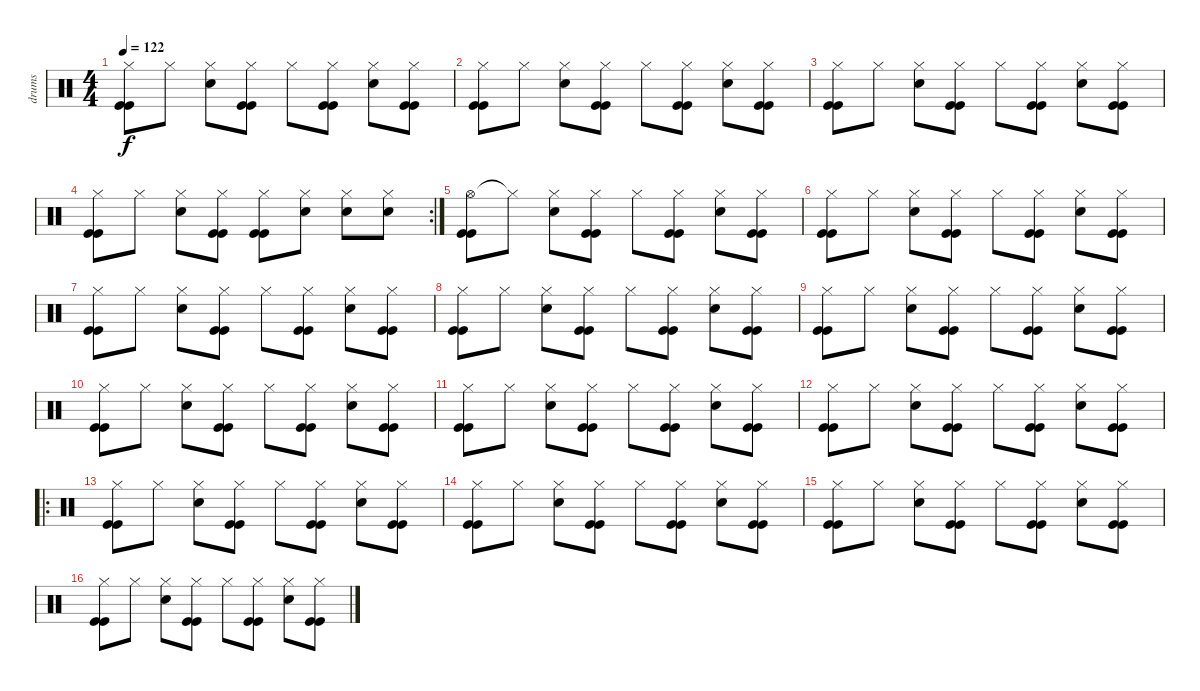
\track ("drums" "drums") {instrument percussion}
\staff {score}
\articulation defaults
\ts (4 4)
\tempo 122
\clef neutral
\ks c
("Hi-Hat (closed)" "Kick (hit)" "Kick (hit)").8{dy f} "Hi-Hat (closed)".8 ("Hi-Hat (closed)" "Electric Snare (hit)").8 ("Hi-Hat (closed)" "Kick (hit)" "Kick (hit)").8 "Hi-Hat (closed)".8 ("Hi-Hat (closed)" "Kick (hit)" "Kick (hit)").8 ("Hi-Hat (closed)" "Electric Snare (hit)").8 ("Hi-Hat (closed)" "Kick (hit)" "Kick (hit)").8 |
("Hi-Hat (closed)" "Kick (hit)" "Kick (hit)").8 "Hi-Hat (closed)".8 ("Hi-Hat (closed)" "Electric Snare (hit)").8 ("Hi-Hat (closed)" "Kick (hit)" "Kick (hit)").8 "Hi-Hat (closed)".8 ("Hi-Hat (closed)" "Kick (hit)" "Kick (hit)").8 ("Hi-Hat (closed)" "Electric Snare (hit)").8 ("Hi-Hat (closed)" "Kick (hit)" "Kick (hit)").8 |
("Hi-Hat (closed)" "Kick (hit)" "Kick (hit)").8 "Hi-Hat (closed)".8 ("Hi-Hat (closed)" "Electric Snare (hit)").8 ("Hi-Hat (closed)" "Kick (hit)" "Kick (hit)").8 "Hi-Hat (closed)".8 ("Hi-Hat (closed)" "Kick (hit)" "Kick (hit)").8 ("Hi-Hat (closed)" "Electric Snare (hit)").8 ("Hi-Hat (closed)" "Kick (hit)" "Kick (hit)").8 |
\rc 2
("Hi-Hat (closed)" "Kick (hit)" "Kick (hit)").8 "Hi-Hat (closed)".8 ("Hi-Hat (closed)" "Electric Snare (hit)").8 ("Hi-Hat (closed)" "Kick (hit)" "Kick (hit)").8 ("Hi-Hat (closed)" "Kick (hit)" "Kick (hit)").8 ("Hi-Hat (closed)" "Electric Snare (hit)").8 ("Hi-Hat (closed)" "Electric Snare (hit)").8 ("Hi-Hat (closed)" "Electric Snare (hit)").8 |
("Hi-Hat (open)" "Kick (hit)" "Kick (hit)").8 "Hi-Hat (closed)"{t}.8 ("Hi-Hat (closed)" "Electric Snare (hit)").8 ("Hi-Hat (closed)" "Kick (hit)" "Kick (hit)").8 "Hi-Hat (closed)".8 ("Hi-Hat (closed)" "Kick (hit)" "Kick (hit)").8 ("Hi-Hat (closed)" "Electric Snare (hit)").8 ("Hi-Hat (closed)" "Kick (hit)" "Kick (hit)").8 |
("Hi-Hat (closed)" "Kick (hit)" "Kick (hit)").8 "Hi-Hat (closed)".8 ("Hi-Hat (closed)" "Electric Snare (hit)").8 ("Hi-Hat (closed)" "Kick (hit)" "Kick (hit)").8 "Hi-Hat (closed)".8 ("Hi-Hat (closed)" "Kick (hit)" "Kick (hit)").8 ("Hi-Hat (closed)" "Electric Snare (hit)").8 ("Hi-Hat (closed)" "Kick (hit)" "Kick (hit)").8 |
("Hi-Hat (closed)" "Kick (hit)" "Kick (hit)").8 "Hi-Hat (closed)".8 ("Hi-Hat (closed)" "Electric Snare (hit)").8 ("Hi-Hat (closed)" "Kick (hit)" "Kick (hit)").8 "Hi-Hat (closed)".8 ("Hi-Hat (closed)" "Kick (hit)" "Kick (hit)").8 ("Hi-Hat (closed)" "Electric Snare (hit)").8 ("Hi-Hat (closed)" "Kick (hit)" "Kick (hit)").8 |
("Hi-Hat (closed)" "Kick (hit)" "Kick (hit)").8 "Hi-Hat (closed)".8 ("Hi-Hat (closed)" "Electric Snare (hit)").8 ("Hi-Hat (closed)" "Kick (hit)" "Kick (hit)").8 "Hi-Hat (closed)".8 ("Hi-Hat (closed)" "Kick (hit)" "Kick (hit)").8 ("Hi-Hat (closed)" "Electric Snare (hit)").8 ("Hi-Hat (closed)" "Kick (hit)" "Kick (hit)").8 |
("Hi-Hat (closed)" "Kick (hit)" "Kick (hit)").8 "Hi-Hat (closed)".8 ("Hi-Hat (closed)" "Electric Snare (hit)").8 ("Hi-Hat (closed)" "Kick (hit)" "Kick (hit)").8 "Hi-Hat (closed)".8 ("Hi-Hat (closed)" "Kick (hit)" "Kick (hit)").8 ("Hi-Hat (closed)" "Electric Snare (hit)").8 ("Hi-Hat (closed)" "Kick (hit)" "Kick (hit)").8 |
("Hi-Hat (closed)" "Kick (hit)" "Kick (hit)").8 "Hi-Hat (closed)".8 ("Hi-Hat (closed)" "Electric Snare (hit)").8 ("Hi-Hat (closed)" "Kick (hit)" "Kick (hit)").8 "Hi-Hat (closed)".8 ("Hi-Hat (closed)" "Kick (hit)" "Kick (hit)").8 ("Hi-Hat (closed)" "Electric Snare (hit)").8 ("Hi-Hat (closed)" "Kick (hit)" "Kick (hit)").8 |
("Hi-Hat (closed)" "Kick (hit)" "Kick (hit)").8 "Hi-Hat (closed)".8 ("Hi-Hat (closed)" "Electric Snare (hit)").8 ("Hi-Hat (closed)" "Kick (hit)" "Kick (hit)").8 "Hi-Hat (closed)".8 ("Hi-Hat (closed)" "Kick (hit)" "Kick (hit)").8 ("Hi-Hat (closed)" "Electric Snare (hit)").8 ("Hi-Hat (closed)" "Kick (hit)" "Kick (hit)").8 |
("Hi-Hat (closed)" "Kick (hit)" "Kick (hit)").8 "Hi-Hat (closed)".8 ("Hi-Hat (closed)" "Electric Snare (hit)").8 ("Hi-Hat (closed)" "Kick (hit)" "Kick (hit)").8 "Hi-Hat (closed)".8 ("Hi-Hat (closed)" "Kick (hit)" "Kick (hit)").8 ("Hi-Hat (closed)" "Electric Snare (hit)").8 ("Hi-Hat (closed)" "Kick (hit)" "Kick (hit)").8 |
\ro
("Hi-Hat (closed)" "Kick (hit)" "Kick (hit)").8 "Hi-Hat (closed)".8 ("Hi-Hat (closed)" "Electric Snare (hit)").8 ("Hi-Hat (closed)" "Kick (hit)" "Kick (hit)").8 "Hi-Hat (closed)".8 ("Hi-Hat (closed)" "Kick (hit)" "Kick (hit)").8 ("Hi-Hat (closed)" "Electric Snare (hit)").8 ("Hi-Hat (closed)" "Kick (hit)" "Kick (hit)").8 |
("Hi-Hat (closed)" "Kick (hit)" "Kick (hit)").8 "Hi-Hat (closed)".8 ("Hi-Hat (closed)" "Electric Snare (hit)").8 ("Hi-Hat (closed)" "Kick (hit)" "Kick (hit)").8 "Hi-Hat (closed)".8 ("Hi-Hat (closed)" "Kick (hit)" "Kick (hit)").8 ("Hi-Hat (closed)" "Electric Snare (hit)").8 ("Hi-Hat (closed)" "Kick (hit)" "Kick (hit)").8 |
("Hi-Hat (closed)" "Kick (hit)" "Kick (hit)").8 "Hi-Hat (closed)".8 ("Hi-Hat (closed)" "Electric Snare (hit)").8 ("Hi-Hat (closed)" "Kick (hit)" "Kick (hit)").8 "Hi-Hat (closed)".8 ("Hi-Hat (closed)" "Kick (hit)" "Kick (hit)").8 ("Hi-Hat (closed)" "Electric Snare (hit)").8 ("Hi-Hat (closed)" "Kick (hit)" "Kick (hit)").8 |
("Hi-Hat (closed)" "Kick (hit)" "Kick (hit)").8 "Hi-Hat (closed)".8 ("Hi-Hat (closed)" "Electric Snare (hit)").8 ("Hi-Hat (closed)" "Kick (hit)" "Kick (hit)").8 "Hi-Hat (closed)".8 ("Hi-Hat (closed)" "Kick (hit)" "Kick (hit)").8 ("Hi-Hat (closed)" "Electric Snare (hit)").8 ("Hi-Hat (closed)" "Kick (hit)" "Kick (hit)").8
